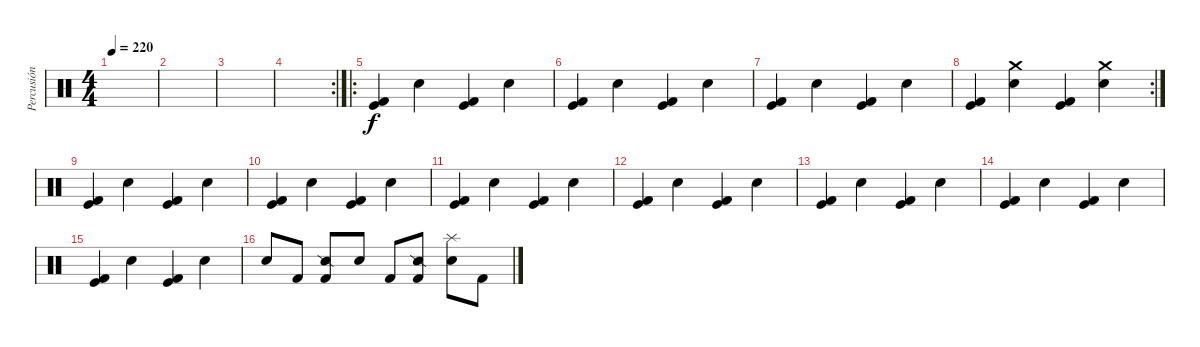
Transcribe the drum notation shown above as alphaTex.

\track ("Percusión" "Percusión") {instrument percussion}
\staff {score}
\articulation defaults
\ts (4 4)
\tempo 220
\clef neutral
\ks c
|
|
|
\rc 2
|
\ro
("Kick (hit) 2" "Kick (hit)").4 "Snare (hit) 2".4 ("Kick (hit) 2" "Kick (hit)").4 "Snare (hit) 2".4 |
("Kick (hit) 2" "Kick (hit)").4 "Snare (hit) 2".4 ("Kick (hit) 2" "Kick (hit)").4 "Snare (hit) 2".4 |
("Kick (hit) 2" "Kick (hit)").4 "Snare (hit) 2".4 ("Kick (hit) 2" "Kick (hit)").4 "Snare (hit) 2".4 |
\rc 2
("Kick (hit) 2" "Kick (hit)").4 ("Crash medium (hit)" "Snare (hit) 2").4 ("Kick (hit) 2" "Kick (hit)").4 ("Crash medium (hit)" "Snare (hit) 2").4 |
("Kick (hit) 2" "Kick (hit)").4 "Snare (hit) 2".4 ("Kick (hit) 2" "Kick (hit)").4 "Snare (hit) 2".4 |
("Kick (hit) 2" "Kick (hit)").4 "Snare (hit) 2".4 ("Kick (hit) 2" "Kick (hit)").4 "Snare (hit) 2".4 |
("Kick (hit) 2" "Kick (hit)").4 "Snare (hit) 2".4 ("Kick (hit) 2" "Kick (hit)").4 "Snare (hit) 2".4 |
("Kick (hit) 2" "Kick (hit)").4 "Snare (hit) 2".4 ("Kick (hit) 2" "Kick (hit)").4 "Snare (hit) 2".4 |
("Kick (hit) 2" "Kick (hit)").4 "Snare (hit) 2".4 ("Kick (hit) 2" "Kick (hit)").4 "Snare (hit) 2".4 |
("Kick (hit) 2" "Kick (hit)").4 "Snare (hit) 2".4 ("Kick (hit) 2" "Kick (hit)").4 "Snare (hit) 2".4 |
("Kick (hit) 2" "Kick (hit)").4 "Snare (hit) 2".4 ("Kick (hit) 2" "Kick (hit)").4 "Snare (hit) 2".4 |
"Snare (hit) 2".8 "Kick (hit) 2".8 ("Snare (side stick) 2" "Kick (hit) 2").8 "Snare (hit) 2".8 "Kick (hit) 2".8 ("Snare (side stick) 2" "Kick (hit) 2").8 ("Splash (hit)" "Snare (hit) 2").8 "Kick (hit) 2".8
